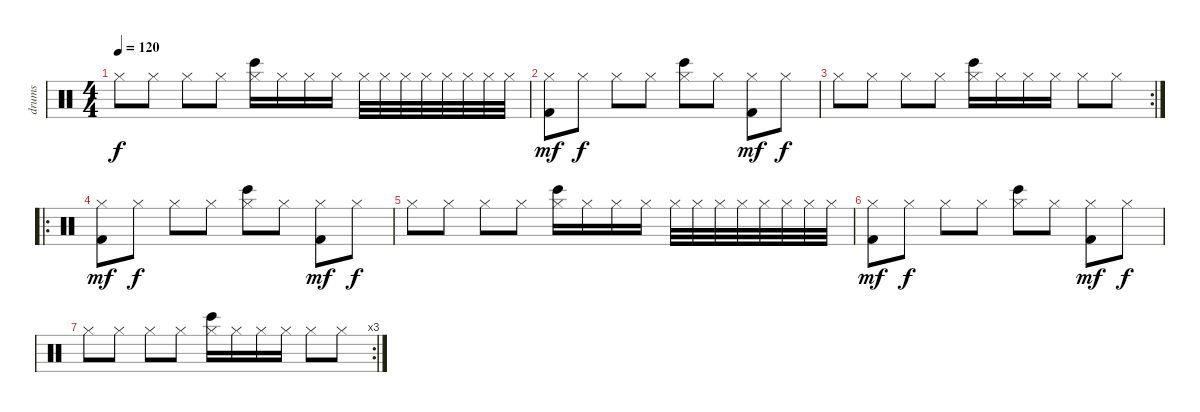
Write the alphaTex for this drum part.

\track ("drums" "drums") {instrument percussion}
\staff {score}
\articulation defaults
\ts (4 4)
\tempo 120
\clef neutral
\ks c "Hi-Hat (closed)".8{dy f} "Hi-Hat (closed)".8 "Hi-Hat (closed)".8 "Hi-Hat (closed)".8
("Hi-Hat (closed)" "Bongo High (hit)").16 "Hi-Hat (closed)".16 "Hi-Hat (closed)".16 "Hi-Hat (closed)".16 "Hi-Hat (closed)".32 "Hi-Hat (closed)".32 "Hi-Hat (closed)".32 "Hi-Hat (closed)".32 "Hi-Hat (closed)".32 "Hi-Hat (closed)".32 "Hi-Hat (closed)".32 "Hi-Hat (closed)".32 |
("Hi-Hat (closed)" "Kick (hit) 2").8{dy mf} "Hi-Hat (closed)".8{dy f} "Hi-Hat (closed)".8 "Hi-Hat (closed)".8 ("Hi-Hat (closed)" "Bongo High (hit)").8 "Hi-Hat (closed)".8 ("Hi-Hat (closed)" "Kick (hit) 2").8{dy mf} "Hi-Hat (closed)".8{dy f} |
\rc 2 "Hi-Hat (closed)".8 "Hi-Hat (closed)".8 "Hi-Hat (closed)".8 "Hi-Hat (closed)".8
("Hi-Hat (closed)" "Bongo High (hit)").16 "Hi-Hat (closed)".16 "Hi-Hat (closed)".16 "Hi-Hat (closed)".16 "Hi-Hat (closed)".8 "Hi-Hat (closed)".8 |
\ro
("Hi-Hat (closed)" "Kick (hit) 2").8{dy mf} "Hi-Hat (closed)".8{dy f} "Hi-Hat (closed)".8 "Hi-Hat (closed)".8 ("Hi-Hat (closed)" "Bongo High (hit)").8 "Hi-Hat (closed)".8 ("Hi-Hat (closed)" "Kick (hit) 2").8{dy mf} "Hi-Hat (closed)".8{dy f} |
"Hi-Hat (closed)".8 "Hi-Hat (closed)".8 "Hi-Hat (closed)".8 "Hi-Hat (closed)".8 ("Hi-Hat (closed)" "Bongo High (hit)").16 "Hi-Hat (closed)".16 "Hi-Hat (closed)".16 "Hi-Hat (closed)".16 "Hi-Hat (closed)".32 "Hi-Hat (closed)".32 "Hi-Hat (closed)".32 "Hi-Hat (closed)".32 "Hi-Hat (closed)".32 "Hi-Hat (closed)".32 "Hi-Hat (closed)".32 "Hi-Hat (closed)".32 |
("Hi-Hat (closed)" "Kick (hit) 2").8{dy mf} "Hi-Hat (closed)".8{dy f} "Hi-Hat (closed)".8 "Hi-Hat (closed)".8 ("Hi-Hat (closed)" "Bongo High (hit)").8 "Hi-Hat (closed)".8 ("Hi-Hat (closed)" "Kick (hit) 2").8{dy mf} "Hi-Hat (closed)".8{dy f} |
\rc 3 "Hi-Hat (closed)".8 "Hi-Hat (closed)".8 "Hi-Hat (closed)".8 "Hi-Hat (closed)".8
("Hi-Hat (closed)" "Bongo High (hit)").16 "Hi-Hat (closed)".16 "Hi-Hat (closed)".16 "Hi-Hat (closed)".16 "Hi-Hat (closed)".8 "Hi-Hat (closed)".8
